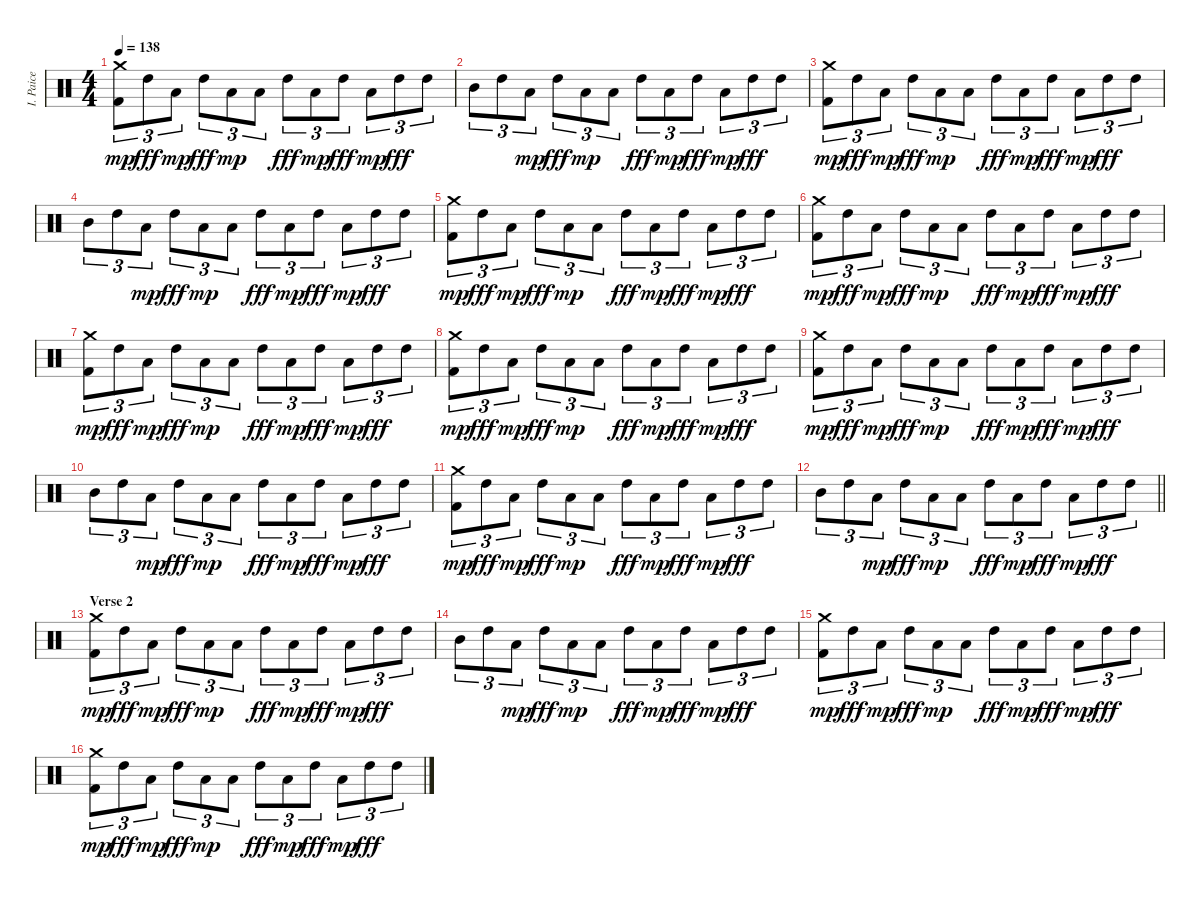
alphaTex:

\track ("I. Paice" "I. Paice") {instrument percussion}
\staff {score}
\articulation defaults
\ts (4 4)
\tempo 138
\clef neutral
\ks c
("Crash medium (hit)" "Kick (hit) 2").8{tu (3 2) dy mp} "High Tom (hit)".8{tu (3 2) dy fff} "Low Tom (hit)".8{tu (3 2) dy mp} "High Tom (hit)".8{tu (3 2) dy fff} "Low Tom (hit)".8{tu (3 2) dy mp} "Low Tom (hit)".8{tu (3 2)} "High Tom (hit)".8{tu (3 2) dy fff} "Low Tom (hit)".8{tu (3 2) dy mp} "High Tom (hit)".8{tu (3 2) dy fff} "Low Tom (hit)".8{tu (3 2) dy mp} "High Tom (hit)".8{tu (3 2) dy fff} "High Tom (hit)".8{tu (3 2)} |
"Mid Tom (hit)".8{tu (3 2)} "High Tom (hit)".8{tu (3 2)} "Low Tom (hit)".8{tu (3 2) dy mp} "High Tom (hit)".8{tu (3 2) dy fff} "Low Tom (hit)".8{tu (3 2) dy mp} "Low Tom (hit)".8{tu (3 2)} "High Tom (hit)".8{tu (3 2) dy fff} "Low Tom (hit)".8{tu (3 2) dy mp} "High Tom (hit)".8{tu (3 2) dy fff} "Low Tom (hit)".8{tu (3 2) dy mp} "High Tom (hit)".8{tu (3 2) dy fff} "High Tom (hit)".8{tu (3 2)} |
("Crash medium (hit)" "Kick (hit) 2").8{tu (3 2) dy mp} "High Tom (hit)".8{tu (3 2) dy fff} "Low Tom (hit)".8{tu (3 2) dy mp} "High Tom (hit)".8{tu (3 2) dy fff} "Low Tom (hit)".8{tu (3 2) dy mp} "Low Tom (hit)".8{tu (3 2)} "High Tom (hit)".8{tu (3 2) dy fff} "Low Tom (hit)".8{tu (3 2) dy mp} "High Tom (hit)".8{tu (3 2) dy fff} "Low Tom (hit)".8{tu (3 2) dy mp} "High Tom (hit)".8{tu (3 2) dy fff} "High Tom (hit)".8{tu (3 2)} |
"Mid Tom (hit)".8{tu (3 2)} "High Tom (hit)".8{tu (3 2)} "Low Tom (hit)".8{tu (3 2) dy mp} "High Tom (hit)".8{tu (3 2) dy fff} "Low Tom (hit)".8{tu (3 2) dy mp} "Low Tom (hit)".8{tu (3 2)} "High Tom (hit)".8{tu (3 2) dy fff} "Low Tom (hit)".8{tu (3 2) dy mp} "High Tom (hit)".8{tu (3 2) dy fff} "Low Tom (hit)".8{tu (3 2) dy mp} "High Tom (hit)".8{tu (3 2) dy fff} "High Tom (hit)".8{tu (3 2)} |
("Crash medium (hit)" "Kick (hit) 2").8{tu (3 2) dy mp} "High Tom (hit)".8{tu (3 2) dy fff} "Low Tom (hit)".8{tu (3 2) dy mp} "High Tom (hit)".8{tu (3 2) dy fff} "Low Tom (hit)".8{tu (3 2) dy mp} "Low Tom (hit)".8{tu (3 2)} "High Tom (hit)".8{tu (3 2) dy fff} "Low Tom (hit)".8{tu (3 2) dy mp} "High Tom (hit)".8{tu (3 2) dy fff} "Low Tom (hit)".8{tu (3 2) dy mp} "High Tom (hit)".8{tu (3 2) dy fff} "High Tom (hit)".8{tu (3 2)} |
("Crash medium (hit)" "Kick (hit) 2").8{tu (3 2) dy mp} "High Tom (hit)".8{tu (3 2) dy fff} "Low Tom (hit)".8{tu (3 2) dy mp} "High Tom (hit)".8{tu (3 2) dy fff} "Low Tom (hit)".8{tu (3 2) dy mp} "Low Tom (hit)".8{tu (3 2)} "High Tom (hit)".8{tu (3 2) dy fff} "Low Tom (hit)".8{tu (3 2) dy mp} "High Tom (hit)".8{tu (3 2) dy fff} "Low Tom (hit)".8{tu (3 2) dy mp} "High Tom (hit)".8{tu (3 2) dy fff} "High Tom (hit)".8{tu (3 2)} |
("Crash medium (hit)" "Kick (hit) 2").8{tu (3 2) dy mp} "High Tom (hit)".8{tu (3 2) dy fff} "Low Tom (hit)".8{tu (3 2) dy mp} "High Tom (hit)".8{tu (3 2) dy fff} "Low Tom (hit)".8{tu (3 2) dy mp} "Low Tom (hit)".8{tu (3 2)} "High Tom (hit)".8{tu (3 2) dy fff} "Low Tom (hit)".8{tu (3 2) dy mp} "High Tom (hit)".8{tu (3 2) dy fff} "Low Tom (hit)".8{tu (3 2) dy mp} "High Tom (hit)".8{tu (3 2) dy fff} "High Tom (hit)".8{tu (3 2)} |
("Crash medium (hit)" "Kick (hit) 2").8{tu (3 2) dy mp} "High Tom (hit)".8{tu (3 2) dy fff} "Low Tom (hit)".8{tu (3 2) dy mp} "High Tom (hit)".8{tu (3 2) dy fff} "Low Tom (hit)".8{tu (3 2) dy mp} "Low Tom (hit)".8{tu (3 2)} "High Tom (hit)".8{tu (3 2) dy fff} "Low Tom (hit)".8{tu (3 2) dy mp} "High Tom (hit)".8{tu (3 2) dy fff} "Low Tom (hit)".8{tu (3 2) dy mp} "High Tom (hit)".8{tu (3 2) dy fff} "High Tom (hit)".8{tu (3 2)} |
("Crash medium (hit)" "Kick (hit) 2").8{tu (3 2) dy mp} "High Tom (hit)".8{tu (3 2) dy fff} "Low Tom (hit)".8{tu (3 2) dy mp} "High Tom (hit)".8{tu (3 2) dy fff} "Low Tom (hit)".8{tu (3 2) dy mp} "Low Tom (hit)".8{tu (3 2)} "High Tom (hit)".8{tu (3 2) dy fff} "Low Tom (hit)".8{tu (3 2) dy mp} "High Tom (hit)".8{tu (3 2) dy fff} "Low Tom (hit)".8{tu (3 2) dy mp} "High Tom (hit)".8{tu (3 2) dy fff} "High Tom (hit)".8{tu (3 2)} |
"Mid Tom (hit)".8{tu (3 2)} "High Tom (hit)".8{tu (3 2)} "Low Tom (hit)".8{tu (3 2) dy mp} "High Tom (hit)".8{tu (3 2) dy fff} "Low Tom (hit)".8{tu (3 2) dy mp} "Low Tom (hit)".8{tu (3 2)} "High Tom (hit)".8{tu (3 2) dy fff} "Low Tom (hit)".8{tu (3 2) dy mp} "High Tom (hit)".8{tu (3 2) dy fff} "Low Tom (hit)".8{tu (3 2) dy mp} "High Tom (hit)".8{tu (3 2) dy fff} "High Tom (hit)".8{tu (3 2)} |
("Crash medium (hit)" "Kick (hit) 2").8{tu (3 2) dy mp} "High Tom (hit)".8{tu (3 2) dy fff} "Low Tom (hit)".8{tu (3 2) dy mp} "High Tom (hit)".8{tu (3 2) dy fff} "Low Tom (hit)".8{tu (3 2) dy mp} "Low Tom (hit)".8{tu (3 2)} "High Tom (hit)".8{tu (3 2) dy fff} "Low Tom (hit)".8{tu (3 2) dy mp} "High Tom (hit)".8{tu (3 2) dy fff} "Low Tom (hit)".8{tu (3 2) dy mp} "High Tom (hit)".8{tu (3 2) dy fff} "High Tom (hit)".8{tu (3 2)} |
\barLineRight lightlight "Mid Tom (hit)".8{tu (3 2)} "High Tom (hit)".8{tu (3 2)} "Low Tom (hit)".8{tu (3 2) dy mp} "High Tom (hit)".8{tu (3 2) dy fff} "Low Tom (hit)".8{tu (3 2) dy mp} "Low Tom (hit)".8{tu (3 2)} "High Tom (hit)".8{tu (3 2) dy fff} "Low Tom (hit)".8{tu (3 2) dy mp} "High Tom (hit)".8{tu (3 2) dy fff} "Low Tom (hit)".8{tu (3 2) dy mp} "High Tom (hit)".8{tu (3 2) dy fff} "High Tom (hit)".8{tu (3 2)}
|
\section ("" "Verse 2")
("Crash medium (hit)" "Kick (hit) 2").8{tu (3 2) dy mp} "High Tom (hit)".8{tu (3 2) dy fff} "Low Tom (hit)".8{tu (3 2) dy mp} "High Tom (hit)".8{tu (3 2) dy fff} "Low Tom (hit)".8{tu (3 2) dy mp} "Low Tom (hit)".8{tu (3 2)} "High Tom (hit)".8{tu (3 2) dy fff} "Low Tom (hit)".8{tu (3 2) dy mp} "High Tom (hit)".8{tu (3 2) dy fff} "Low Tom (hit)".8{tu (3 2) dy mp} "High Tom (hit)".8{tu (3 2) dy fff} "High Tom (hit)".8{tu (3 2)} |
"Mid Tom (hit)".8{tu (3 2)} "High Tom (hit)".8{tu (3 2)} "Low Tom (hit)".8{tu (3 2) dy mp} "High Tom (hit)".8{tu (3 2) dy fff} "Low Tom (hit)".8{tu (3 2) dy mp} "Low Tom (hit)".8{tu (3 2)} "High Tom (hit)".8{tu (3 2) dy fff} "Low Tom (hit)".8{tu (3 2) dy mp} "High Tom (hit)".8{tu (3 2) dy fff} "Low Tom (hit)".8{tu (3 2) dy mp} "High Tom (hit)".8{tu (3 2) dy fff} "High Tom (hit)".8{tu (3 2)} |
("Crash medium (hit)" "Kick (hit) 2").8{tu (3 2) dy mp} "High Tom (hit)".8{tu (3 2) dy fff} "Low Tom (hit)".8{tu (3 2) dy mp} "High Tom (hit)".8{tu (3 2) dy fff} "Low Tom (hit)".8{tu (3 2) dy mp} "Low Tom (hit)".8{tu (3 2)} "High Tom (hit)".8{tu (3 2) dy fff} "Low Tom (hit)".8{tu (3 2) dy mp} "High Tom (hit)".8{tu (3 2) dy fff} "Low Tom (hit)".8{tu (3 2) dy mp} "High Tom (hit)".8{tu (3 2) dy fff} "High Tom (hit)".8{tu (3 2)} |
("Crash medium (hit)" "Kick (hit) 2").8{tu (3 2) dy mp} "High Tom (hit)".8{tu (3 2) dy fff} "Low Tom (hit)".8{tu (3 2) dy mp} "High Tom (hit)".8{tu (3 2) dy fff} "Low Tom (hit)".8{tu (3 2) dy mp} "Low Tom (hit)".8{tu (3 2)} "High Tom (hit)".8{tu (3 2) dy fff} "Low Tom (hit)".8{tu (3 2) dy mp} "High Tom (hit)".8{tu (3 2) dy fff} "Low Tom (hit)".8{tu (3 2) dy mp} "High Tom (hit)".8{tu (3 2) dy fff} "High Tom (hit)".8{tu (3 2)}
